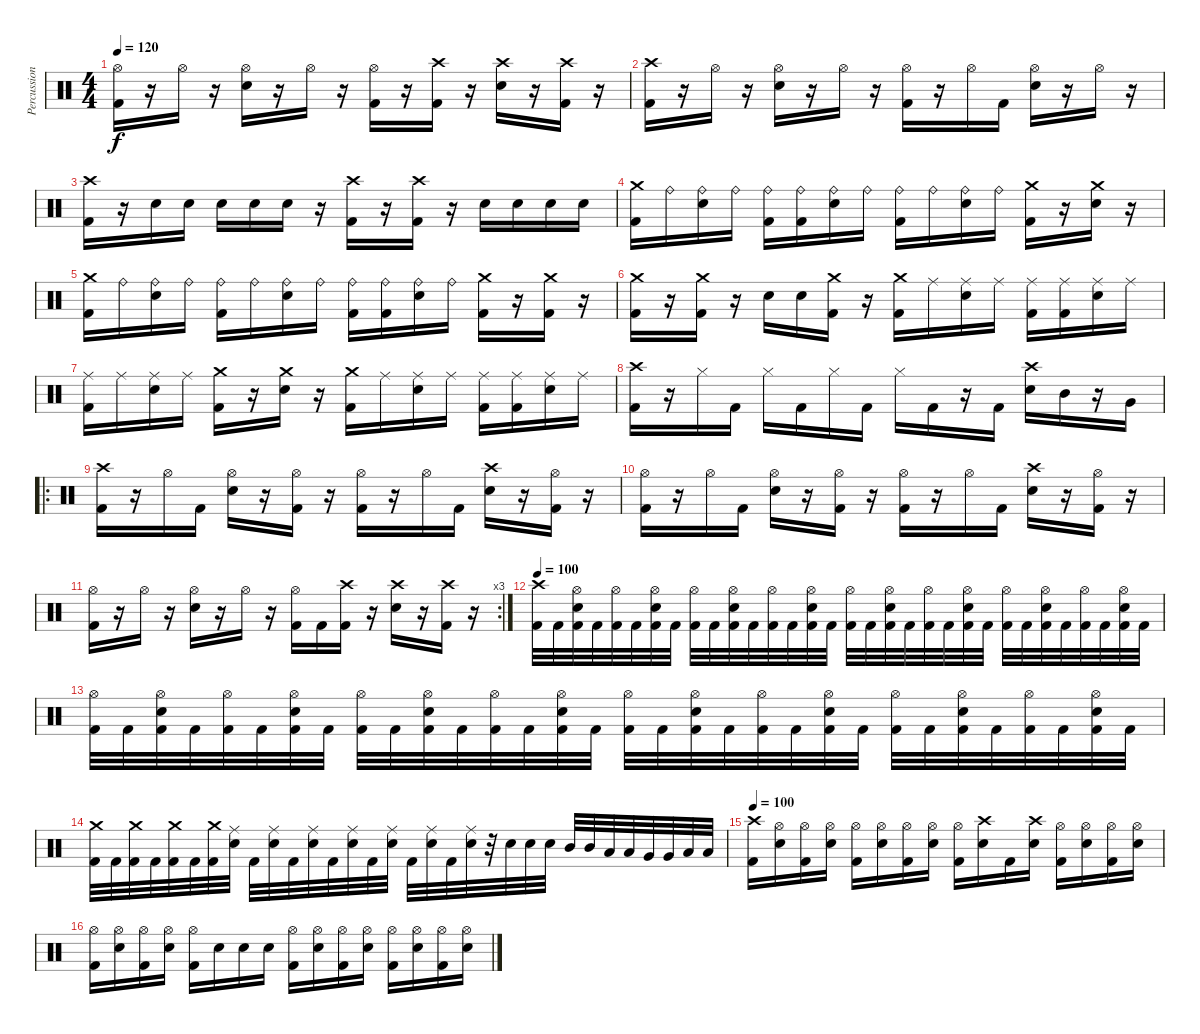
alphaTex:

\track ("Percussion" "Percussion") {instrument percussion}
\staff {score}
\articulation defaults
\ts (4 4)
\tempo 120
\clef neutral
\ks c
("Hi-Hat (open)" "Kick (hit) 2").16{dy f} r.16 "Hi-Hat (open)".16 r.16 ("Hi-Hat (open)" "Snare (hit) 2").16 r.16 "Hi-Hat (open)".16 r.16 ("Hi-Hat (open)" "Kick (hit) 2").16 r.16 ("Crash high (hit)" "Kick (hit) 2").16 r.16 ("Crash high (hit)" "Snare (hit) 2").16 r.16 ("Crash high (hit)" "Kick (hit) 2").16 r.16 |
("Crash high (hit)" "Kick (hit) 2").16 r.16 "Hi-Hat (open)".16 r.16 ("Hi-Hat (open)" "Snare (hit) 2").16 r.16 "Hi-Hat (open)".16 r.16 ("Hi-Hat (open)" "Kick (hit) 2").16 r.16 "Hi-Hat (open)".16 "Kick (hit) 2".16 ("Hi-Hat (open)" "Snare (hit) 2").16 r.16 "Hi-Hat (open)".16 r.16 |
("Crash high (hit)" "Kick (hit) 2").16 r.16 "Snare (hit) 2".16 "Snare (hit) 2".16 "Snare (hit) 2".16 "Snare (hit) 2".16 "Snare (hit) 2".16 r.16 ("Crash high (hit)" "Kick (hit) 2").16 r.16 ("Crash high (hit)" "Kick (hit) 2").16 r.16 "Snare (hit) 2".16 "Snare (hit) 2".16 "Snare (hit) 2".16 "Snare (hit) 2".16 |
("Crash medium (hit)" "Kick (hit) 2").16 "Ride (bell)".16 ("Ride (bell)" "Snare (hit) 2").16 "Ride (bell)".16 ("Ride (bell)" "Kick (hit) 2").16 ("Ride (bell)" "Kick (hit) 2").16 ("Ride (bell)" "Snare (hit) 2").16 "Ride (bell)".16 ("Ride (bell)" "Kick (hit) 2").16 "Ride (bell)".16 ("Ride (bell)" "Snare (hit) 2").16 "Ride (bell)".16 ("Crash medium (hit)" "Kick (hit) 2").16 r.16 ("Crash medium (hit)" "Snare (hit) 2").16 r.16 |
("Crash medium (hit)" "Kick (hit) 2").16 "Ride (bell)".16 ("Ride (bell)" "Snare (hit) 2").16 "Ride (bell)".16 ("Ride (bell)" "Kick (hit) 2").16 "Ride (bell)".16 ("Ride (bell)" "Snare (hit) 2").16 "Ride (bell)".16 ("Ride (bell)" "Kick (hit) 2").16 ("Ride (bell)" "Kick (hit) 2").16 ("Ride (bell)" "Snare (hit) 2").16 "Ride (bell)".16 ("Crash medium (hit)" "Kick (hit) 2").16 r.16 ("Crash medium (hit)" "Kick (hit) 2").16 r.16 |
("Crash medium (hit)" "Kick (hit) 2").16 r.16 ("Crash medium (hit)" "Kick (hit) 2").16 r.16 "Snare (hit) 2".16 "Snare (hit) 2".16 ("Crash medium (hit)" "Kick (hit) 2").16 r.16 ("Crash medium (hit)" "Kick (hit) 2").16 "Ride (middle)".16 ("Ride (middle)" "Snare (hit) 2").16 "Ride (middle)".16 ("Ride (middle)" "Kick (hit) 2").16 ("Ride (middle)" "Kick (hit) 2").16 ("Ride (middle)" "Snare (hit) 2").16 "Ride (middle)".16 |
("Ride (middle)" "Kick (hit) 2").16 "Ride (middle)".16 ("Ride (middle)" "Snare (hit) 2").16 "Ride (middle)".16 ("Crash medium (hit)" "Kick (hit) 2").16 r.16 ("Crash medium (hit)" "Snare (hit) 2").16 r.16 ("Crash medium (hit)" "Kick (hit) 2").16 "Ride (middle)".16 ("Ride (middle)" "Snare (hit) 2").16 "Ride (middle)".16 ("Ride (middle)" "Kick (hit) 2").16 ("Ride (middle)" "Kick (hit) 2").16 ("Ride (middle)" "Snare (hit) 2").16 "Ride (middle)".16 |
("Crash high (hit)" "Kick (hit) 2").16 r.16 "Hi-Hat (closed)".16 "Kick (hit) 2".16 "Hi-Hat (closed)".16 "Kick (hit) 2".16 "Hi-Hat (closed)".16 "Kick (hit) 2".16 "Hi-Hat (closed)".16 "Kick (hit) 2".16 r.16 "Kick (hit) 2".16 ("Crash high (hit)" "Snare (hit) 2").16 "Mid Tom (hit)".16 r.16 "Very Low Tom (hit)".16 |
\ro
("Crash high (hit)" "Kick (hit) 2").16 r.16 "Hi-Hat (open)".16 "Kick (hit) 2".16 ("Hi-Hat (open)" "Snare (hit) 2").16 r.16 ("Hi-Hat (open)" "Kick (hit) 2").16 r.16 ("Hi-Hat (open)" "Kick (hit) 2").16 r.16 "Hi-Hat (open)".16 "Kick (hit) 2".16 ("Crash high (hit)" "Snare (hit) 2").16 r.16 ("Hi-Hat (open)" "Kick (hit) 2").16 r.16 |
("Hi-Hat (open)" "Kick (hit) 2").16 r.16 "Hi-Hat (open)".16 "Kick (hit) 2".16 ("Hi-Hat (open)" "Snare (hit) 2").16 r.16 ("Hi-Hat (open)" "Kick (hit) 2").16 r.16 ("Hi-Hat (open)" "Kick (hit) 2").16 r.16 "Hi-Hat (open)".16 "Kick (hit) 2".16 ("Crash high (hit)" "Snare (hit) 2").16 r.16 ("Hi-Hat (open)" "Kick (hit) 2").16 r.16 |
\rc 3
("Hi-Hat (open)" "Kick (hit) 2").16 r.16 "Hi-Hat (open)".16 r.16 ("Hi-Hat (open)" "Snare (hit) 2").16 r.16 "Hi-Hat (open)".16 r.16 ("Hi-Hat (open)" "Kick (hit) 2").16 "Kick (hit) 2".16 ("Crash high (hit)" "Kick (hit) 2").16 r.16 ("Crash high (hit)" "Snare (hit) 2").16 r.16 ("Crash high (hit)" "Kick (hit) 2").16 r.16 |
\tempo 100
("Crash high (hit)" "Kick (hit) 2").32 "Kick (hit) 2".32 ("Hi-Hat (open)" "Snare (hit) 2" "Kick (hit) 2").32 "Kick (hit) 2".32 ("Hi-Hat (open)" "Kick (hit) 2").32 "Kick (hit) 2".32 ("Hi-Hat (open)" "Snare (hit) 2" "Kick (hit) 2").32 "Kick (hit) 2".32 ("Hi-Hat (open)" "Kick (hit) 2").32 "Kick (hit) 2".32 ("Hi-Hat (open)" "Snare (hit) 2" "Kick (hit) 2").32 "Kick (hit) 2".32 ("Hi-Hat (open)" "Kick (hit) 2").32 "Kick (hit) 2".32 ("Hi-Hat (open)" "Snare (hit) 2" "Kick (hit) 2").32 "Kick (hit) 2".32 ("Hi-Hat (open)" "Kick (hit) 2").32 "Kick (hit) 2".32 ("Hi-Hat (open)" "Snare (hit) 2" "Kick (hit) 2").32 "Kick (hit) 2".32 ("Hi-Hat (open)" "Kick (hit) 2").32 "Kick (hit) 2".32 ("Hi-Hat (open)" "Snare (hit) 2" "Kick (hit) 2").32 "Kick (hit) 2".32 ("Hi-Hat (open)" "Kick (hit) 2").32 "Kick (hit) 2".32 ("Hi-Hat (open)" "Snare (hit) 2" "Kick (hit) 2").32 "Kick (hit) 2".32 ("Hi-Hat (open)" "Kick (hit) 2").32 "Kick (hit) 2".32 ("Hi-Hat (open)" "Snare (hit) 2" "Kick (hit) 2").32 "Kick (hit) 2".32 |
("Hi-Hat (open)" "Kick (hit) 2").32 "Kick (hit) 2".32 ("Hi-Hat (open)" "Snare (hit) 2" "Kick (hit) 2").32 "Kick (hit) 2".32 ("Hi-Hat (open)" "Kick (hit) 2").32 "Kick (hit) 2".32 ("Hi-Hat (open)" "Snare (hit) 2" "Kick (hit) 2").32 "Kick (hit) 2".32 ("Hi-Hat (open)" "Kick (hit) 2").32 "Kick (hit) 2".32 ("Hi-Hat (open)" "Snare (hit) 2" "Kick (hit) 2").32 "Kick (hit) 2".32 ("Hi-Hat (open)" "Kick (hit) 2").32 "Kick (hit) 2".32 ("Hi-Hat (open)" "Snare (hit) 2" "Kick (hit) 2").32 "Kick (hit) 2".32 ("Hi-Hat (open)" "Kick (hit) 2").32 "Kick (hit) 2".32 ("Hi-Hat (open)" "Snare (hit) 2" "Kick (hit) 2").32 "Kick (hit) 2".32 ("Hi-Hat (open)" "Kick (hit) 2").32 "Kick (hit) 2".32 ("Hi-Hat (open)" "Snare (hit) 2" "Kick (hit) 2").32 "Kick (hit) 2".32 ("Hi-Hat (open)" "Kick (hit) 2").32 "Kick (hit) 2".32 ("Hi-Hat (open)" "Snare (hit) 2" "Kick (hit) 2").32 "Kick (hit) 2".32 ("Hi-Hat (open)" "Kick (hit) 2").32 "Kick (hit) 2".32 ("Hi-Hat (open)" "Snare (hit) 2" "Kick (hit) 2").32 "Kick (hit) 2".32 |
("Crash medium (hit)" "Kick (hit) 2").32 "Kick (hit) 2".32 ("Crash medium (hit)" "Kick (hit) 2").32 "Kick (hit) 2".32 ("Crash medium (hit)" "Kick (hit) 2").32 "Kick (hit) 2".32 ("Crash medium (hit)" "Kick (hit) 2").32 ("Ride (middle)" "Snare (hit) 2").32 "Kick (hit) 2".32 ("Ride (middle)" "Snare (hit) 2").32 "Kick (hit) 2".32 ("Ride (middle)" "Snare (hit) 2").32 "Kick (hit) 2".32 ("Ride (middle)" "Snare (hit) 2").32 "Kick (hit) 2".32 ("Ride (middle)" "Snare (hit) 2").32 "Kick (hit) 2".32 ("Ride (middle)" "Snare (hit) 2").32 "Kick (hit) 2".32 ("Ride (middle)" "Snare (hit) 2").32 r.32 "Snare (hit) 2".32 "Snare (hit) 2".32 "Snare (hit) 2".32 "Mid Tom (hit)".32 "Mid Tom (hit)".32 "Low Tom (hit)".32 "Low Tom (hit)".32 "Very Low Tom (hit)".32 "Very Low Tom (hit)".32 "Low Floor Tom (hit)".32 "Low Floor Tom (hit)".32 |
\tempo 100
("Crash high (hit)" "Kick (hit) 2").16 ("Hi-Hat (open)" "Snare (hit) 2").16 ("Hi-Hat (open)" "Kick (hit) 2").16 ("Hi-Hat (open)" "Snare (hit) 2").16 ("Hi-Hat (open)" "Kick (hit) 2").16 ("Hi-Hat (open)" "Snare (hit) 2").16 ("Hi-Hat (open)" "Kick (hit) 2").16 ("Hi-Hat (open)" "Snare (hit) 2").16 ("Hi-Hat (open)" "Kick (hit) 2").16 ("Crash high (hit)" "Snare (hit) 2").16 "Kick (hit) 2".16 ("Crash high (hit)" "Snare (hit) 2").16 ("Hi-Hat (open)" "Kick (hit) 2").16 ("Hi-Hat (open)" "Snare (hit) 2").16 ("Hi-Hat (open)" "Kick (hit) 2").16 ("Hi-Hat (open)" "Snare (hit) 2").16 |
("Hi-Hat (open)" "Kick (hit) 2").16 ("Hi-Hat (open)" "Snare (hit) 2").16 ("Hi-Hat (open)" "Kick (hit) 2").16 ("Hi-Hat (open)" "Snare (hit) 2").16 ("Hi-Hat (open)" "Kick (hit) 2").16 "Snare (hit) 2".16 "Snare (hit) 2".16 "Snare (hit) 2".16 ("Hi-Hat (open)" "Kick (hit) 2").16 ("Hi-Hat (open)" "Snare (hit) 2").16 ("Hi-Hat (open)" "Kick (hit) 2").16 ("Hi-Hat (open)" "Snare (hit) 2").16 ("Hi-Hat (open)" "Kick (hit) 2").16 ("Hi-Hat (open)" "Snare (hit) 2").16 ("Hi-Hat (open)" "Kick (hit) 2").16 ("Hi-Hat (open)" "Snare (hit) 2").16
